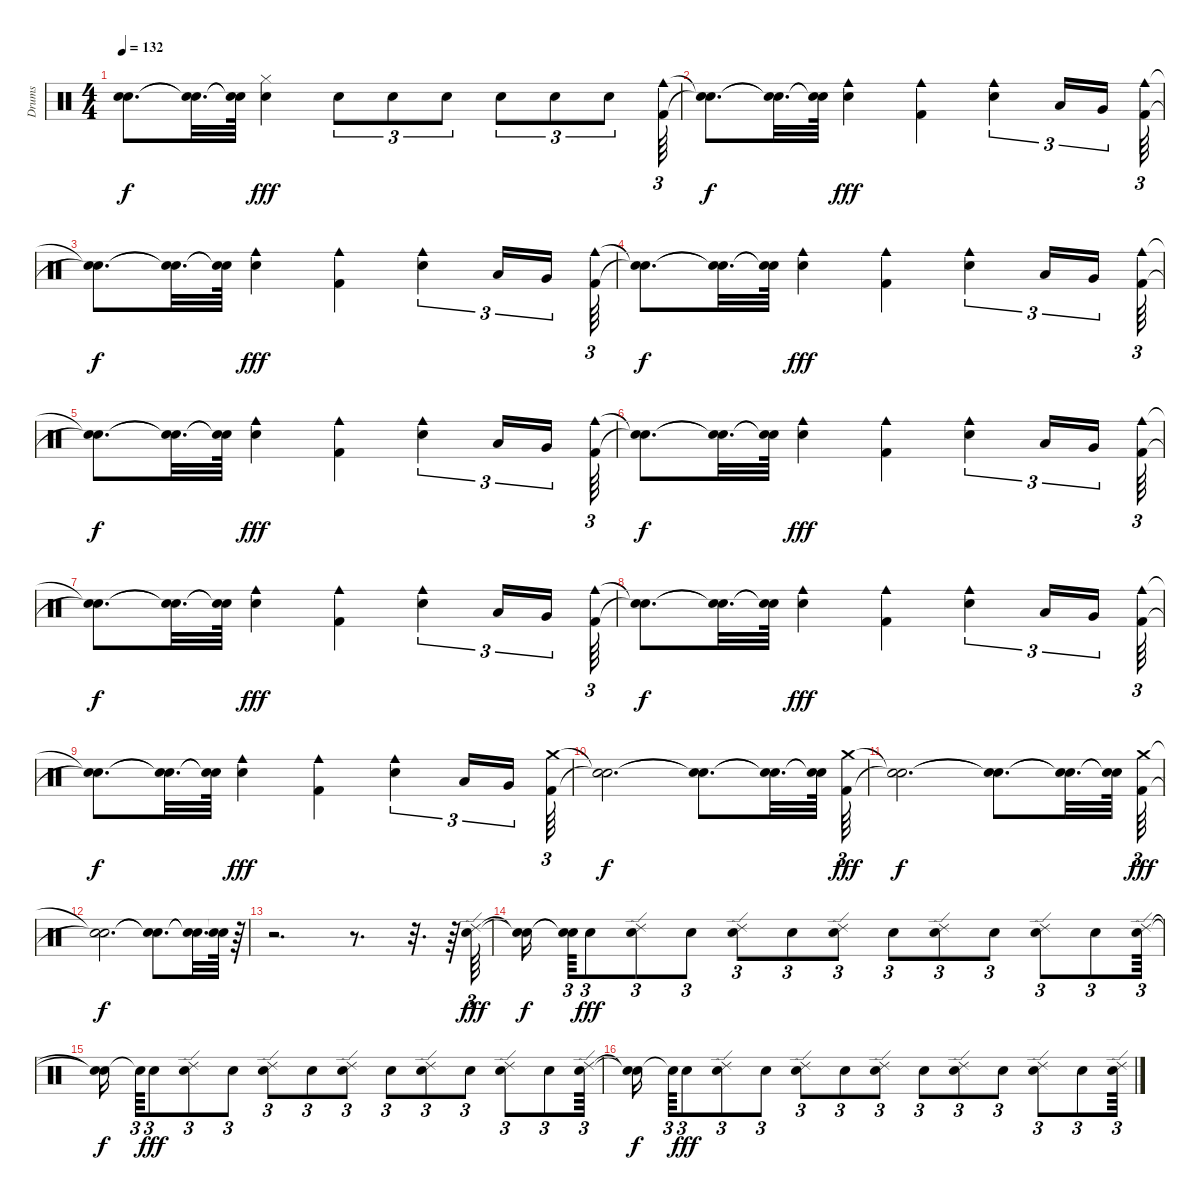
\track ("Drums" "Drums") {instrument percussion}
\staff {score}
\articulation defaults
\ts (4 4)
\tempo 132
\clef neutral
\ks c
("Snare (hit)"{t} "Snare (hit)"{t}).8{d dy f} ("Snare (hit)"{t} "Snare (hit)"{t}).32{d} ("Snare (hit)"{t} "Snare (hit)"{t}).64 ("Electric Snare (hit)" "Hi-Hat (closed)").4{dy fff} "Electric Snare (hit)".8{tu (3 2)} "Electric Snare (hit)".8{tu (3 2)} "Electric Snare (hit)".8{tu (3 2)} "Electric Snare (hit)".8{tu (3 2)} "Electric Snare (hit)".8{tu (3 2)} "Electric Snare (hit)".8{tu (3 2)} ("Cowbell medium (hit)" "Kick (hit) 2").64{tu (3 2)} |
("Snare (hit)"{t} "Snare (hit)"{t}).8{d dy f} ("Snare (hit)"{t} "Snare (hit)"{t}).32{d} ("Snare (hit)"{t} "Snare (hit)"{t}).64 ("Electric Snare (hit)" "Cowbell medium (hit)").4{dy fff} ("Kick (hit) 2" "Cowbell medium (hit)").4 ("Electric Snare (hit)" "Cowbell medium (hit)").4{tu (3 2)} "Low Tom (hit)".16{tu (3 2)} "Very Low Tom (hit)".16{tu (3 2)} ("Cowbell medium (hit)" "Kick (hit) 2").64{tu (3 2)} |
("Snare (hit)"{t} "Snare (hit)"{t}).8{d dy f} ("Snare (hit)"{t} "Snare (hit)"{t}).32{d} ("Snare (hit)"{t} "Snare (hit)"{t}).64 ("Cowbell medium (hit)" "Electric Snare (hit)").4{dy fff} ("Cowbell medium (hit)" "Kick (hit) 2").4 ("Cowbell medium (hit)" "Electric Snare (hit)").4{tu (3 2)} "Low Tom (hit)".16{tu (3 2)} "Very Low Tom (hit)".16{tu (3 2)} ("Cowbell medium (hit)" "Kick (hit) 2").64{tu (3 2)} |
("Snare (hit)"{t} "Snare (hit)"{t}).8{d dy f} ("Snare (hit)"{t} "Snare (hit)"{t}).32{d} ("Snare (hit)"{t} "Snare (hit)"{t}).64 ("Cowbell medium (hit)" "Electric Snare (hit)").4{dy fff} ("Kick (hit) 2" "Cowbell medium (hit)").4 ("Electric Snare (hit)" "Cowbell medium (hit)").4{tu (3 2)} "Low Tom (hit)".16{tu (3 2)} "Very Low Tom (hit)".16{tu (3 2)} ("Cowbell medium (hit)" "Kick (hit) 2").64{tu (3 2)} |
("Snare (hit)"{t} "Snare (hit)"{t}).8{d dy f} ("Snare (hit)"{t} "Snare (hit)"{t}).32{d} ("Snare (hit)"{t} "Snare (hit)"{t}).64 ("Cowbell medium (hit)" "Electric Snare (hit)").4{dy fff} ("Kick (hit) 2" "Cowbell medium (hit)").4 ("Cowbell medium (hit)" "Electric Snare (hit)").4{tu (3 2)} "Low Tom (hit)".16{tu (3 2)} "Very Low Tom (hit)".16{tu (3 2)} ("Cowbell medium (hit)" "Kick (hit) 2").64{tu (3 2)} |
("Snare (hit)"{t} "Snare (hit)"{t}).8{d dy f} ("Snare (hit)"{t} "Snare (hit)"{t}).32{d} ("Snare (hit)"{t} "Snare (hit)"{t}).64 ("Cowbell medium (hit)" "Electric Snare (hit)").4{dy fff} ("Cowbell medium (hit)" "Kick (hit) 2").4 ("Electric Snare (hit)" "Cowbell medium (hit)").4{tu (3 2)} "Low Tom (hit)".16{tu (3 2)} "Very Low Tom (hit)".16{tu (3 2)} ("Cowbell medium (hit)" "Kick (hit) 2").64{tu (3 2)} |
("Snare (hit)"{t} "Snare (hit)"{t}).8{d dy f} ("Snare (hit)"{t} "Snare (hit)"{t}).32{d} ("Snare (hit)"{t} "Snare (hit)"{t}).64 ("Cowbell medium (hit)" "Electric Snare (hit)").4{dy fff} ("Kick (hit) 2" "Cowbell medium (hit)").4 ("Cowbell medium (hit)" "Electric Snare (hit)").4{tu (3 2)} "Low Tom (hit)".16{tu (3 2)} "Very Low Tom (hit)".16{tu (3 2)} ("Kick (hit) 2" "Cowbell medium (hit)").64{tu (3 2)} |
("Snare (hit)"{t} "Snare (hit)"{t}).8{d dy f} ("Snare (hit)"{t} "Snare (hit)"{t}).32{d} ("Snare (hit)"{t} "Snare (hit)"{t}).64 ("Cowbell medium (hit)" "Electric Snare (hit)").4{dy fff} ("Cowbell medium (hit)" "Kick (hit) 2").4 ("Cowbell medium (hit)" "Electric Snare (hit)").4{tu (3 2)} "Low Tom (hit)".16{tu (3 2)} "Very Low Tom (hit)".16{tu (3 2)} ("Kick (hit) 2" "Cowbell medium (hit)").64{tu (3 2)} |
("Snare (hit)"{t} "Snare (hit)"{t}).8{d dy f} ("Snare (hit)"{t} "Snare (hit)"{t}).32{d} ("Snare (hit)"{t} "Snare (hit)"{t}).64 ("Cowbell medium (hit)" "Electric Snare (hit)").4{dy fff} ("Kick (hit) 2" "Cowbell medium (hit)").4 ("Cowbell medium (hit)" "Electric Snare (hit)").4{tu (3 2)} "Low Tom (hit)".16{tu (3 2)} "Very Low Tom (hit)".16{tu (3 2)} ("Kick (hit) 2" "Crash medium (hit)").64{tu (3 2)} |
("Snare (hit)"{t} "Snare (hit)"{t}).2{d dy f} ("Snare (hit)"{t} "Snare (hit)"{t}).8{d} ("Snare (hit)"{t} "Snare (hit)"{t}).32{d} ("Snare (hit)"{t} "Snare (hit)"{t}).64 ("Crash medium (hit)" "Kick (hit) 2").64{tu (3 2) dy fff} |
("Snare (hit)"{t} "Snare (hit)"{t}).2{d dy f} ("Snare (hit)"{t} "Snare (hit)"{t}).8{d} ("Snare (hit)"{t} "Snare (hit)"{t}).32{d} ("Snare (hit)"{t} "Snare (hit)"{t}).64 ("Kick (hit) 2" "Crash medium (hit)").64{tu (3 2) dy fff} |
("Snare (hit)"{t} "Snare (hit)"{t}).2{d dy f} ("Snare (hit)"{t} "Snare (hit)"{t}).8{d} ("Snare (hit)"{t} "Snare (hit)"{t}).32{d} ("Snare (hit)"{t} "Snare (hit)"{t}).64 r.64{tu (3 2)} |
r.2{d} r.8{d} r.32{d} r.64 ("Electric Snare (hit)" "Ride (edge) 2").64{tu (3 2) dy fff} |
("Snare (hit)"{t} "Snare (hit)"{t}).16{dy f} ("Snare (hit)"{t} "Snare (hit)"{t}).64{tu (3 2)} "Electric Snare (hit)".8{tu (3 2) dy fff} ("Ride (edge) 2" "Electric Snare (hit)").8{tu (3 2)} "Electric Snare (hit)".8{tu (3 2)} ("Ride (edge) 2" "Electric Snare (hit)").8{tu (3 2)} "Electric Snare (hit)".8{tu (3 2)} ("Ride (edge) 2" "Electric Snare (hit)").8{tu (3 2)} "Electric Snare (hit)".8{tu (3 2)} ("Electric Snare (hit)" "Ride (edge) 2").8{tu (3 2)} "Electric Snare (hit)".8{tu (3 2)} ("Ride (edge) 2" "Electric Snare (hit)").8{tu (3 2)} "Electric Snare (hit)".8{tu (3 2)} ("Electric Snare (hit)" "Ride (edge) 2").64{tu (3 2)} |
("Snare (hit)"{t} "Snare (hit)"{t}).16{dy f} "Snare (hit)"{t}.64{tu (3 2)} "Electric Snare (hit)".8{tu (3 2) dy fff} ("Electric Snare (hit)" "Ride (edge) 2").8{tu (3 2)} "Electric Snare (hit)".8{tu (3 2)} ("Electric Snare (hit)" "Ride (edge) 2").8{tu (3 2)} "Electric Snare (hit)".8{tu (3 2)} ("Ride (edge) 2" "Electric Snare (hit)").8{tu (3 2)} "Electric Snare (hit)".8{tu (3 2)} ("Ride (edge) 2" "Electric Snare (hit)").8{tu (3 2)} "Electric Snare (hit)".8{tu (3 2)} ("Ride (edge) 2" "Electric Snare (hit)").8{tu (3 2)} "Electric Snare (hit)".8{tu (3 2)} ("Ride (edge) 2" "Electric Snare (hit)").64{tu (3 2)} |
("Snare (hit)"{t} "Snare (hit)"{t}).16{dy f} "Snare (hit)"{t}.64{tu (3 2)} "Electric Snare (hit)".8{tu (3 2) dy fff} ("Ride (edge) 2" "Electric Snare (hit)").8{tu (3 2)} "Electric Snare (hit)".8{tu (3 2)} ("Ride (edge) 2" "Electric Snare (hit)").8{tu (3 2)} "Electric Snare (hit)".8{tu (3 2)} ("Electric Snare (hit)" "Ride (edge) 2").8{tu (3 2)} "Electric Snare (hit)".8{tu (3 2)} ("Electric Snare (hit)" "Ride (edge) 2").8{tu (3 2)} "Electric Snare (hit)".8{tu (3 2)} ("Electric Snare (hit)" "Ride (edge) 2").8{tu (3 2)} "Electric Snare (hit)".8{tu (3 2)} ("Ride (edge) 2" "Electric Snare (hit)").64{tu (3 2)}
